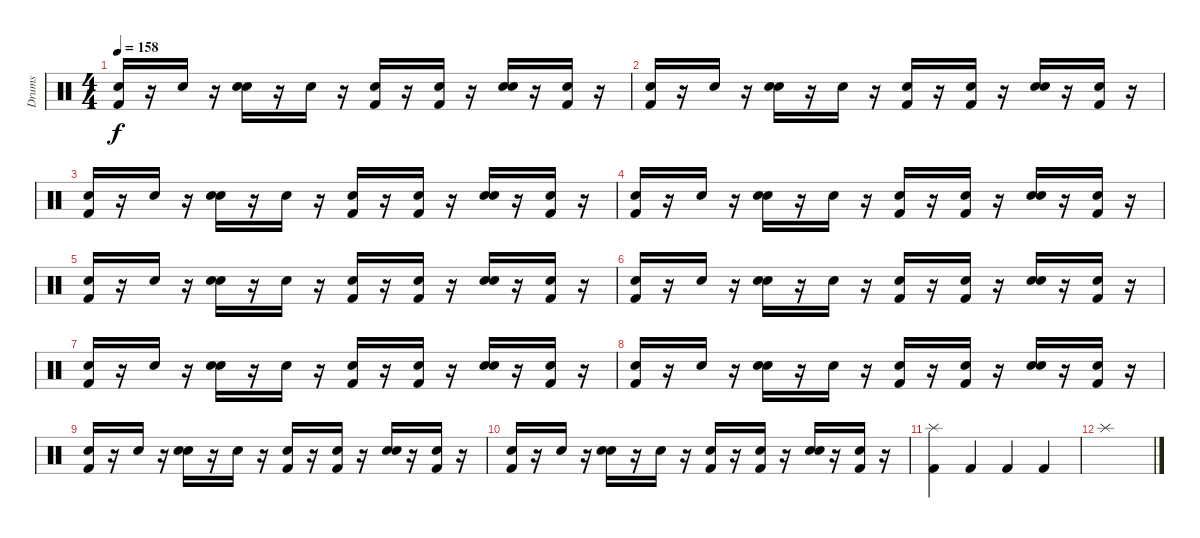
\track ("Drums" "Drums") {instrument percussion}
\staff {score}
\articulation defaults
\ts (4 4)
\tempo 158
\clef neutral
\ks c
("Snare (hit) 2" "Kick (hit) 2").16{dy f} r.16 "Snare (hit) 2".16 r.16 ("Snare (hit) 2" "Electric Snare (hit)").16 r.16 "Snare (hit) 2".16 r.16 ("Snare (hit) 2" "Kick (hit) 2").16 r.16 ("Snare (hit) 2" "Kick (hit) 2").16 r.16 ("Snare (hit) 2" "Electric Snare (hit)").16 r.16 ("Snare (hit) 2" "Kick (hit) 2").16 r.16 |
("Snare (hit) 2" "Kick (hit) 2").16 r.16 "Snare (hit) 2".16 r.16 ("Snare (hit) 2" "Electric Snare (hit)").16 r.16 "Snare (hit) 2".16 r.16 ("Snare (hit) 2" "Kick (hit) 2").16 r.16 ("Snare (hit) 2" "Kick (hit) 2").16 r.16 ("Snare (hit) 2" "Electric Snare (hit)").16 r.16 ("Snare (hit) 2" "Kick (hit) 2").16 r.16 |
("Snare (hit) 2" "Kick (hit) 2").16 r.16 "Snare (hit) 2".16 r.16 ("Snare (hit) 2" "Electric Snare (hit)").16 r.16 "Snare (hit) 2".16 r.16 ("Snare (hit) 2" "Kick (hit) 2").16 r.16 ("Snare (hit) 2" "Kick (hit) 2").16 r.16 ("Snare (hit) 2" "Electric Snare (hit)").16 r.16 ("Snare (hit) 2" "Kick (hit) 2").16 r.16 |
("Snare (hit) 2" "Kick (hit) 2").16 r.16 "Snare (hit) 2".16 r.16 ("Snare (hit) 2" "Electric Snare (hit)").16 r.16 "Snare (hit) 2".16 r.16 ("Snare (hit) 2" "Kick (hit) 2").16 r.16 ("Snare (hit) 2" "Kick (hit) 2").16 r.16 ("Snare (hit) 2" "Electric Snare (hit)").16 r.16 ("Snare (hit) 2" "Kick (hit) 2").16 r.16 |
("Snare (hit) 2" "Kick (hit) 2").16 r.16 "Snare (hit) 2".16 r.16 ("Snare (hit) 2" "Electric Snare (hit)").16 r.16 "Snare (hit) 2".16 r.16 ("Snare (hit) 2" "Kick (hit) 2").16 r.16 ("Snare (hit) 2" "Kick (hit) 2").16 r.16 ("Snare (hit) 2" "Electric Snare (hit)").16 r.16 ("Snare (hit) 2" "Kick (hit) 2").16 r.16 |
("Snare (hit) 2" "Kick (hit) 2").16 r.16 "Snare (hit) 2".16 r.16 ("Snare (hit) 2" "Electric Snare (hit)").16 r.16 "Snare (hit) 2".16 r.16 ("Snare (hit) 2" "Kick (hit) 2").16 r.16 ("Snare (hit) 2" "Kick (hit) 2").16 r.16 ("Snare (hit) 2" "Electric Snare (hit)").16 r.16 ("Snare (hit) 2" "Kick (hit) 2").16 r.16 |
("Snare (hit) 2" "Kick (hit) 2").16 r.16 "Snare (hit) 2".16 r.16 ("Snare (hit) 2" "Electric Snare (hit)").16 r.16 "Snare (hit) 2".16 r.16 ("Snare (hit) 2" "Kick (hit) 2").16 r.16 ("Snare (hit) 2" "Kick (hit) 2").16 r.16 ("Snare (hit) 2" "Electric Snare (hit)").16 r.16 ("Snare (hit) 2" "Kick (hit) 2").16 r.16 |
("Snare (hit) 2" "Kick (hit) 2").16 r.16 "Snare (hit) 2".16 r.16 ("Snare (hit) 2" "Electric Snare (hit)").16 r.16 "Snare (hit) 2".16 r.16 ("Snare (hit) 2" "Kick (hit) 2").16 r.16 ("Snare (hit) 2" "Kick (hit) 2").16 r.16 ("Snare (hit) 2" "Electric Snare (hit)").16 r.16 ("Snare (hit) 2" "Kick (hit) 2").16 r.16 |
("Snare (hit) 2" "Kick (hit) 2").16 r.16 "Snare (hit) 2".16 r.16 ("Snare (hit) 2" "Electric Snare (hit)").16 r.16 "Snare (hit) 2".16 r.16 ("Snare (hit) 2" "Kick (hit) 2").16 r.16 ("Snare (hit) 2" "Kick (hit) 2").16 r.16 ("Snare (hit) 2" "Electric Snare (hit)").16 r.16 ("Snare (hit) 2" "Kick (hit) 2").16 r.16 |
("Snare (hit) 2" "Kick (hit) 2").16 r.16 "Snare (hit) 2".16 r.16 ("Snare (hit) 2" "Electric Snare (hit)").16 r.16 "Snare (hit) 2".16 r.16 ("Snare (hit) 2" "Kick (hit) 2").16 r.16 ("Snare (hit) 2" "Kick (hit) 2").16 r.16 ("Snare (hit) 2" "Electric Snare (hit)").16 r.16 ("Snare (hit) 2" "Kick (hit) 2").16 r.16 |
("Splash (hit)" "Kick (hit) 2").4 "Kick (hit) 2".4 "Kick (hit) 2".4 "Kick (hit) 2".4 |
"Splash (hit)".1
